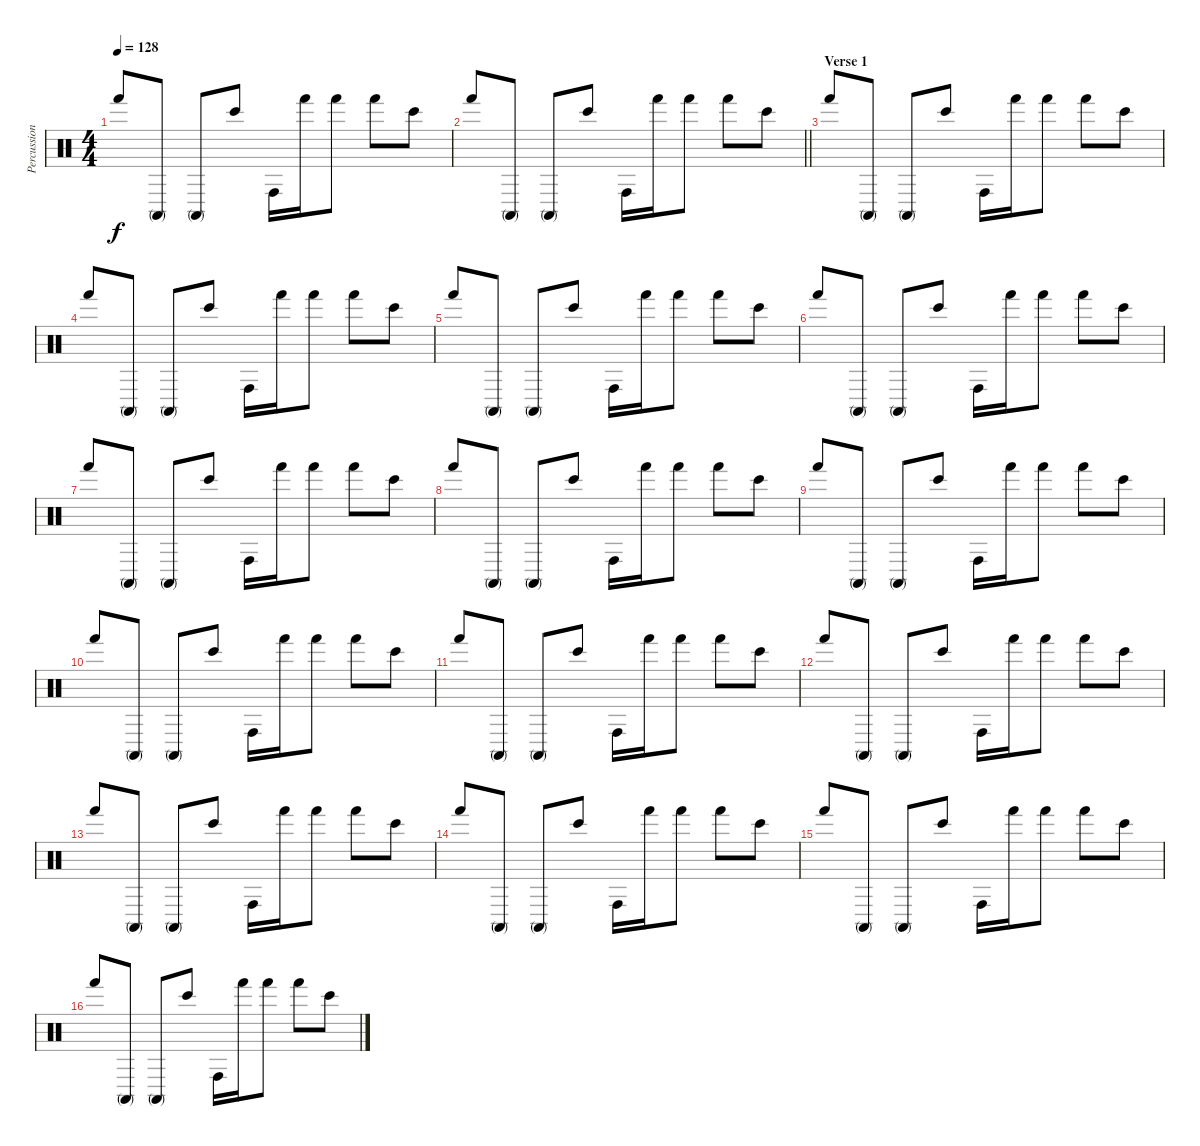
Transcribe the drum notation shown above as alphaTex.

\track ("Percussion" "Percussion") {instrument percussion}
\staff {score}
\articulation defaults
\ts (4 4)
\tempo 128
\clef neutral
\ks c "Hand (hit)".8{dy f} "Conga high (mute)".8 "Conga high (mute)".8 "Bongo High (hit)".8 "Conga high (hit)".16 "Hand (hit)".16 "Hand (hit)".8 "Hand (hit)".8 "Bongo High (hit)".8
|
\barLineRight lightlight "Hand (hit)".8 "Conga high (mute)".8 "Conga high (mute)".8 "Bongo High (hit)".8 "Conga high (hit)".16 "Hand (hit)".16 "Hand (hit)".8 "Hand (hit)".8 "Bongo High (hit)".8
|
\section ("" "Verse 1")
"Hand (hit)".8 "Conga high (mute)".8 "Conga high (mute)".8 "Bongo High (hit)".8 "Conga high (hit)".16 "Hand (hit)".16 "Hand (hit)".8 "Hand (hit)".8 "Bongo High (hit)".8 |
"Hand (hit)".8 "Conga high (mute)".8 "Conga high (mute)".8 "Bongo High (hit)".8 "Conga high (hit)".16 "Hand (hit)".16 "Hand (hit)".8 "Hand (hit)".8 "Bongo High (hit)".8 |
"Hand (hit)".8 "Conga high (mute)".8 "Conga high (mute)".8 "Bongo High (hit)".8 "Conga high (hit)".16 "Hand (hit)".16 "Hand (hit)".8 "Hand (hit)".8 "Bongo High (hit)".8 |
"Hand (hit)".8 "Conga high (mute)".8 "Conga high (mute)".8 "Bongo High (hit)".8 "Conga high (hit)".16 "Hand (hit)".16 "Hand (hit)".8 "Hand (hit)".8 "Bongo High (hit)".8 |
"Hand (hit)".8 "Conga high (mute)".8 "Conga high (mute)".8 "Bongo High (hit)".8 "Conga high (hit)".16 "Hand (hit)".16 "Hand (hit)".8 "Hand (hit)".8 "Bongo High (hit)".8 |
"Hand (hit)".8 "Conga high (mute)".8 "Conga high (mute)".8 "Bongo High (hit)".8 "Conga high (hit)".16 "Hand (hit)".16 "Hand (hit)".8 "Hand (hit)".8 "Bongo High (hit)".8 |
"Hand (hit)".8 "Conga high (mute)".8 "Conga high (mute)".8 "Bongo High (hit)".8 "Conga high (hit)".16 "Hand (hit)".16 "Hand (hit)".8 "Hand (hit)".8 "Bongo High (hit)".8 |
"Hand (hit)".8 "Conga high (mute)".8 "Conga high (mute)".8 "Bongo High (hit)".8 "Conga high (hit)".16 "Hand (hit)".16 "Hand (hit)".8 "Hand (hit)".8 "Bongo High (hit)".8 |
"Hand (hit)".8 "Conga high (mute)".8 "Conga high (mute)".8 "Bongo High (hit)".8 "Conga high (hit)".16 "Hand (hit)".16 "Hand (hit)".8 "Hand (hit)".8 "Bongo High (hit)".8 |
"Hand (hit)".8 "Conga high (mute)".8 "Conga high (mute)".8 "Bongo High (hit)".8 "Conga high (hit)".16 "Hand (hit)".16 "Hand (hit)".8 "Hand (hit)".8 "Bongo High (hit)".8 |
"Hand (hit)".8 "Conga high (mute)".8 "Conga high (mute)".8 "Bongo High (hit)".8 "Conga high (hit)".16 "Hand (hit)".16 "Hand (hit)".8 "Hand (hit)".8 "Bongo High (hit)".8 |
"Hand (hit)".8 "Conga high (mute)".8 "Conga high (mute)".8 "Bongo High (hit)".8 "Conga high (hit)".16 "Hand (hit)".16 "Hand (hit)".8 "Hand (hit)".8 "Bongo High (hit)".8 |
"Hand (hit)".8 "Conga high (mute)".8 "Conga high (mute)".8 "Bongo High (hit)".8 "Conga high (hit)".16 "Hand (hit)".16 "Hand (hit)".8 "Hand (hit)".8 "Bongo High (hit)".8 |
"Hand (hit)".8 "Conga high (mute)".8 "Conga high (mute)".8 "Bongo High (hit)".8 "Conga high (hit)".16 "Hand (hit)".16 "Hand (hit)".8 "Hand (hit)".8 "Bongo High (hit)".8
